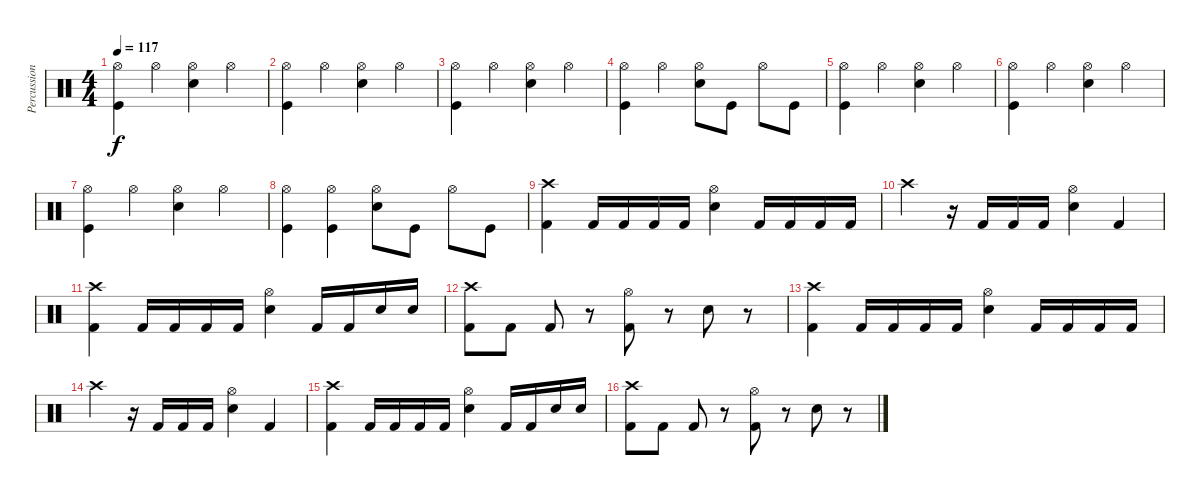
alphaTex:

\track ("Percussion" "Percussion") {instrument percussion}
\staff {score}
\articulation defaults
\ts (4 4)
\tempo 117
\clef neutral
\ks c
("Hi-Hat (open)" "Kick (hit)").4{dy f} "Hi-Hat (open)".4 ("Hi-Hat (open)" "Electric Snare (hit)").4 "Hi-Hat (open)".4 |
("Hi-Hat (open)" "Kick (hit)").4 "Hi-Hat (open)".4 ("Hi-Hat (open)" "Electric Snare (hit)").4 "Hi-Hat (open)".4 |
("Hi-Hat (open)" "Kick (hit)").4 "Hi-Hat (open)".4 ("Hi-Hat (open)" "Electric Snare (hit)").4 "Hi-Hat (open)".4 |
("Hi-Hat (open)" "Kick (hit)").4 "Hi-Hat (open)".4 ("Hi-Hat (open)" "Electric Snare (hit)").8 "Kick (hit)".8 "Hi-Hat (open)".8 "Kick (hit)".8 |
("Hi-Hat (open)" "Kick (hit)").4 "Hi-Hat (open)".4 ("Hi-Hat (open)" "Electric Snare (hit)").4 "Hi-Hat (open)".4 |
("Hi-Hat (open)" "Kick (hit)").4 "Hi-Hat (open)".4 ("Hi-Hat (open)" "Electric Snare (hit)").4 "Hi-Hat (open)".4 |
("Hi-Hat (open)" "Kick (hit)").4 "Hi-Hat (open)".4 ("Hi-Hat (open)" "Electric Snare (hit)").4 "Hi-Hat (open)".4 |
("Hi-Hat (open)" "Kick (hit)").4 ("Hi-Hat (open)" "Kick (hit)").4 ("Hi-Hat (open)" "Electric Snare (hit)").8 "Kick (hit)".8 "Hi-Hat (open)".8 "Kick (hit)".8 |
("Crash high (hit)" "Kick (hit) 2").4 "Kick (hit) 2".16 "Kick (hit) 2".16 "Kick (hit) 2".16 "Kick (hit) 2".16 ("Hi-Hat (open)" "Snare (hit) 2").4 "Kick (hit) 2".16 "Kick (hit) 2".16 "Kick (hit) 2".16 "Kick (hit) 2".16 |
"Crash high (hit)".4 r.16 "Kick (hit) 2".16 "Kick (hit) 2".16 "Kick (hit) 2".16 ("Hi-Hat (open)" "Snare (hit) 2").4 "Kick (hit) 2".4 |
("Crash high (hit)" "Kick (hit) 2").4 "Kick (hit) 2".16 "Kick (hit) 2".16 "Kick (hit) 2".16 "Kick (hit) 2".16 ("Hi-Hat (open)" "Snare (hit) 2").4 "Kick (hit) 2".16 "Kick (hit) 2".16 "Snare (hit) 2".16 "Snare (hit) 2".16 |
("Crash high (hit)" "Kick (hit) 2").8 "Kick (hit) 2".8 "Kick (hit) 2".8 r.8 ("Hi-Hat (open)" "Kick (hit) 2").8 r.8 "Snare (hit) 2".8 r.8 |
("Crash high (hit)" "Kick (hit) 2").4 "Kick (hit) 2".16 "Kick (hit) 2".16 "Kick (hit) 2".16 "Kick (hit) 2".16 ("Hi-Hat (open)" "Snare (hit) 2").4 "Kick (hit) 2".16 "Kick (hit) 2".16 "Kick (hit) 2".16 "Kick (hit) 2".16 |
"Crash high (hit)".4 r.16 "Kick (hit) 2".16 "Kick (hit) 2".16 "Kick (hit) 2".16 ("Hi-Hat (open)" "Snare (hit) 2").4 "Kick (hit) 2".4 |
("Crash high (hit)" "Kick (hit) 2").4 "Kick (hit) 2".16 "Kick (hit) 2".16 "Kick (hit) 2".16 "Kick (hit) 2".16 ("Hi-Hat (open)" "Snare (hit) 2").4 "Kick (hit) 2".16 "Kick (hit) 2".16 "Snare (hit) 2".16 "Snare (hit) 2".16 |
("Crash high (hit)" "Kick (hit) 2").8 "Kick (hit) 2".8 "Kick (hit) 2".8 r.8 ("Hi-Hat (open)" "Kick (hit) 2").8 r.8 "Snare (hit) 2".8 r.8
